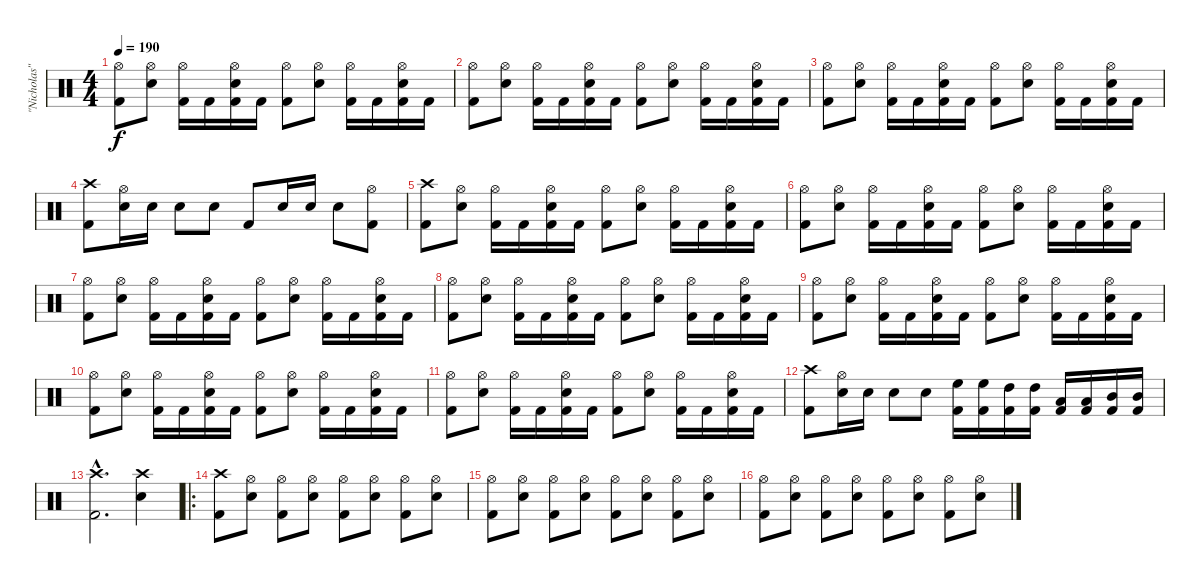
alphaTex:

\track ("\"Nicholas\"" "\"Nicholas\"") {instrument percussion}
\staff {score}
\articulation defaults
\ts (4 4)
\tempo 190
\clef neutral
\ks c
("Kick (hit) 2" "Hi-Hat (open)").8{dy f} ("Snare (hit) 2" "Hi-Hat (open)").8 ("Kick (hit) 2" "Hi-Hat (open)").16 "Kick (hit) 2".16 ("Kick (hit) 2" "Snare (hit) 2" "Hi-Hat (open)").16 "Kick (hit) 2".16 ("Kick (hit) 2" "Hi-Hat (open)").8 ("Snare (hit) 2" "Hi-Hat (open)").8 ("Kick (hit) 2" "Hi-Hat (open)").16 "Kick (hit) 2".16 ("Kick (hit) 2" "Snare (hit) 2" "Hi-Hat (open)").16 "Kick (hit) 2".16 |
("Kick (hit) 2" "Hi-Hat (open)").8 ("Snare (hit) 2" "Hi-Hat (open)").8 ("Kick (hit) 2" "Hi-Hat (open)").16 "Kick (hit) 2".16 ("Kick (hit) 2" "Snare (hit) 2" "Hi-Hat (open)").16 "Kick (hit) 2".16 ("Kick (hit) 2" "Hi-Hat (open)").8 ("Snare (hit) 2" "Hi-Hat (open)").8 ("Kick (hit) 2" "Hi-Hat (open)").16 "Kick (hit) 2".16 ("Kick (hit) 2" "Snare (hit) 2" "Hi-Hat (open)").16 "Kick (hit) 2".16 |
("Kick (hit) 2" "Hi-Hat (open)").8 ("Snare (hit) 2" "Hi-Hat (open)").8 ("Kick (hit) 2" "Hi-Hat (open)").16 "Kick (hit) 2".16 ("Kick (hit) 2" "Snare (hit) 2" "Hi-Hat (open)").16 "Kick (hit) 2".16 ("Kick (hit) 2" "Hi-Hat (open)").8 ("Snare (hit) 2" "Hi-Hat (open)").8 ("Kick (hit) 2" "Hi-Hat (open)").16 "Kick (hit) 2".16 ("Kick (hit) 2" "Snare (hit) 2" "Hi-Hat (open)").16 "Kick (hit) 2".16 |
("Kick (hit) 2" "Crash high (hit)").8 ("Snare (hit) 2" "Hi-Hat (open)").16 "Snare (hit) 2".16 "Snare (hit) 2".8 "Snare (hit) 2".8 "Kick (hit) 2".8 "Snare (hit) 2".16 "Snare (hit) 2".16 "Snare (hit) 2".8 ("Kick (hit) 2" "Hi-Hat (open)").8 |
("Kick (hit) 2" "Crash high (hit)").8 ("Snare (hit) 2" "Hi-Hat (open)").8 ("Kick (hit) 2" "Hi-Hat (open)").16 "Kick (hit) 2".16 ("Kick (hit) 2" "Snare (hit) 2" "Hi-Hat (open)").16 "Kick (hit) 2".16 ("Kick (hit) 2" "Hi-Hat (open)").8 ("Snare (hit) 2" "Hi-Hat (open)").8 ("Kick (hit) 2" "Hi-Hat (open)").16 "Kick (hit) 2".16 ("Kick (hit) 2" "Snare (hit) 2" "Hi-Hat (open)").16 "Kick (hit) 2".16 |
("Kick (hit) 2" "Hi-Hat (open)").8 ("Snare (hit) 2" "Hi-Hat (open)").8 ("Kick (hit) 2" "Hi-Hat (open)").16 "Kick (hit) 2".16 ("Kick (hit) 2" "Snare (hit) 2" "Hi-Hat (open)").16 "Kick (hit) 2".16 ("Kick (hit) 2" "Hi-Hat (open)").8 ("Snare (hit) 2" "Hi-Hat (open)").8 ("Kick (hit) 2" "Hi-Hat (open)").16 "Kick (hit) 2".16 ("Kick (hit) 2" "Snare (hit) 2" "Hi-Hat (open)").16 "Kick (hit) 2".16 |
("Kick (hit) 2" "Hi-Hat (open)").8 ("Snare (hit) 2" "Hi-Hat (open)").8 ("Kick (hit) 2" "Hi-Hat (open)").16 "Kick (hit) 2".16 ("Kick (hit) 2" "Snare (hit) 2" "Hi-Hat (open)").16 "Kick (hit) 2".16 ("Kick (hit) 2" "Hi-Hat (open)").8 ("Snare (hit) 2" "Hi-Hat (open)").8 ("Kick (hit) 2" "Hi-Hat (open)").16 "Kick (hit) 2".16 ("Kick (hit) 2" "Snare (hit) 2" "Hi-Hat (open)").16 "Kick (hit) 2".16 |
("Kick (hit) 2" "Hi-Hat (open)").8 ("Snare (hit) 2" "Hi-Hat (open)").8 ("Kick (hit) 2" "Hi-Hat (open)").16 "Kick (hit) 2".16 ("Kick (hit) 2" "Snare (hit) 2" "Hi-Hat (open)").16 "Kick (hit) 2".16 ("Kick (hit) 2" "Hi-Hat (open)").8 ("Snare (hit) 2" "Hi-Hat (open)").8 ("Kick (hit) 2" "Hi-Hat (open)").16 "Kick (hit) 2".16 ("Kick (hit) 2" "Snare (hit) 2" "Hi-Hat (open)").16 "Kick (hit) 2".16 |
("Kick (hit) 2" "Hi-Hat (open)").8 ("Snare (hit) 2" "Hi-Hat (open)").8 ("Kick (hit) 2" "Hi-Hat (open)").16 "Kick (hit) 2".16 ("Kick (hit) 2" "Snare (hit) 2" "Hi-Hat (open)").16 "Kick (hit) 2".16 ("Kick (hit) 2" "Hi-Hat (open)").8 ("Snare (hit) 2" "Hi-Hat (open)").8 ("Kick (hit) 2" "Hi-Hat (open)").16 "Kick (hit) 2".16 ("Kick (hit) 2" "Snare (hit) 2" "Hi-Hat (open)").16 "Kick (hit) 2".16 |
("Kick (hit) 2" "Hi-Hat (open)").8 ("Snare (hit) 2" "Hi-Hat (open)").8 ("Kick (hit) 2" "Hi-Hat (open)").16 "Kick (hit) 2".16 ("Kick (hit) 2" "Snare (hit) 2" "Hi-Hat (open)").16 "Kick (hit) 2".16 ("Kick (hit) 2" "Hi-Hat (open)").8 ("Snare (hit) 2" "Hi-Hat (open)").8 ("Kick (hit) 2" "Hi-Hat (open)").16 "Kick (hit) 2".16 ("Kick (hit) 2" "Snare (hit) 2" "Hi-Hat (open)").16 "Kick (hit) 2".16 |
("Kick (hit) 2" "Hi-Hat (open)").8 ("Snare (hit) 2" "Hi-Hat (open)").8 ("Kick (hit) 2" "Hi-Hat (open)").16 "Kick (hit) 2".16 ("Kick (hit) 2" "Snare (hit) 2" "Hi-Hat (open)").16 "Kick (hit) 2".16 ("Kick (hit) 2" "Hi-Hat (open)").8 ("Snare (hit) 2" "Hi-Hat (open)").8 ("Kick (hit) 2" "Hi-Hat (open)").16 "Kick (hit) 2".16 ("Kick (hit) 2" "Snare (hit) 2" "Hi-Hat (open)").16 "Kick (hit) 2".16 |
("Kick (hit) 2" "Crash high (hit)").8 ("Snare (hit) 2" "Hi-Hat (open)").16 "Snare (hit) 2".16 "Snare (hit) 2".8 "Snare (hit) 2".8 ("Kick (hit) 2" "High Floor Tom (hit)").16 ("Kick (hit) 2" "High Floor Tom (hit)").16 ("Kick (hit) 2" "High Tom (hit)").16 ("Kick (hit) 2" "High Tom (hit)").16 ("Kick (hit) 2" "Low Tom (hit)").16 ("Kick (hit) 2" "Low Tom (hit)").16 ("Kick (hit) 2" "Mid Tom (hit)").16 ("Kick (hit) 2" "Mid Tom (hit)").16 |
("Kick (hit) 2"{hac} "Crash high (hit)"{hac}).2{d} ("Snare (hit) 2" "Crash high (hit)").4 |
\ro
("Kick (hit) 2" "Crash high (hit)").8 ("Snare (hit) 2" "Hi-Hat (open)").8 ("Kick (hit) 2" "Hi-Hat (open)").8 ("Snare (hit) 2" "Hi-Hat (open)").8 ("Kick (hit) 2" "Hi-Hat (open)").8 ("Snare (hit) 2" "Hi-Hat (open)").8 ("Kick (hit) 2" "Hi-Hat (open)").8 ("Snare (hit) 2" "Hi-Hat (open)").8 |
("Kick (hit) 2" "Hi-Hat (open)").8 ("Snare (hit) 2" "Hi-Hat (open)").8 ("Kick (hit) 2" "Hi-Hat (open)").8 ("Snare (hit) 2" "Hi-Hat (open)").8 ("Kick (hit) 2" "Hi-Hat (open)").8 ("Snare (hit) 2" "Hi-Hat (open)").8 ("Kick (hit) 2" "Hi-Hat (open)").8 ("Snare (hit) 2" "Hi-Hat (open)").8 |
("Kick (hit) 2" "Hi-Hat (open)").8 ("Snare (hit) 2" "Hi-Hat (open)").8 ("Kick (hit) 2" "Hi-Hat (open)").8 ("Snare (hit) 2" "Hi-Hat (open)").8 ("Kick (hit) 2" "Hi-Hat (open)").8 ("Snare (hit) 2" "Hi-Hat (open)").8 ("Kick (hit) 2" "Hi-Hat (open)").8 ("Snare (hit) 2" "Hi-Hat (open)").8
